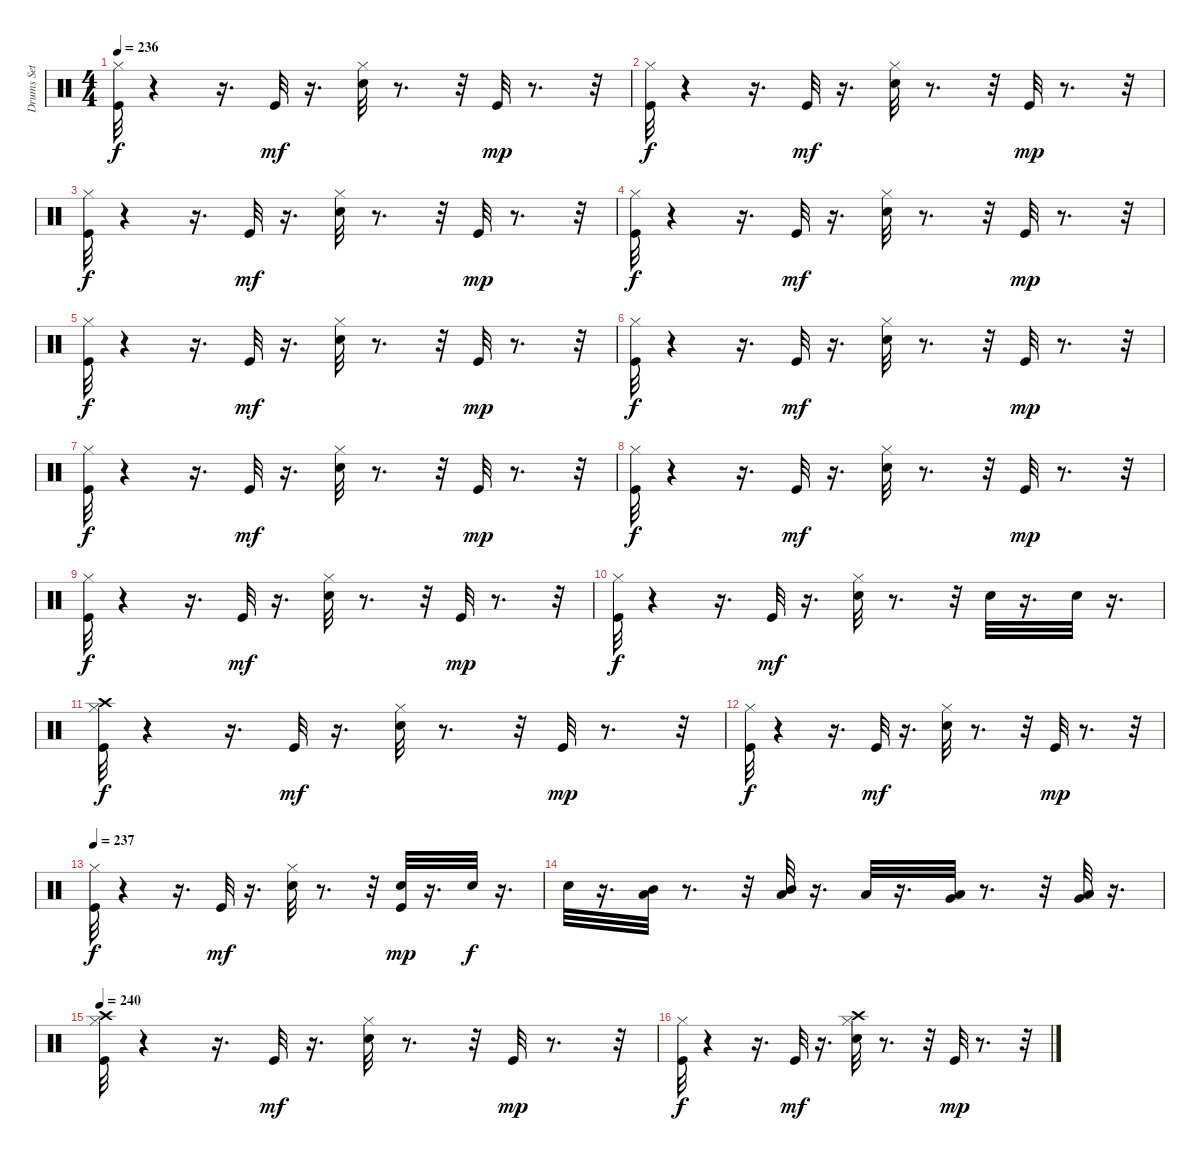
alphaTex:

\track ("Drums Set" "Drums Set") {instrument percussion}
\staff {score}
\articulation defaults
\ts (4 4)
\tempo 236
\clef neutral
\ks c
("Kick (hit)" "Hi-Hat (closed)").32{dy f} r.4 r.16{d} "Kick (hit)".32{dy mf} r.16{d} ("Hi-Hat (closed)" "Snare (hit) 2").32 r.8{d} r.32 "Kick (hit)".32{dy mp} r.8{d} r.32 |
("Kick (hit)" "Hi-Hat (closed)").32{dy f} r.4 r.16{d} "Kick (hit)".32{dy mf} r.16{d} ("Hi-Hat (closed)" "Snare (hit) 2").32 r.8{d} r.32 "Kick (hit)".32{dy mp} r.8{d} r.32 |
("Kick (hit)" "Hi-Hat (closed)").32{dy f} r.4 r.16{d} "Kick (hit)".32{dy mf} r.16{d} ("Hi-Hat (closed)" "Snare (hit) 2").32 r.8{d} r.32 "Kick (hit)".32{dy mp} r.8{d} r.32 |
("Kick (hit)" "Hi-Hat (closed)").32{dy f} r.4 r.16{d} "Kick (hit)".32{dy mf} r.16{d} ("Hi-Hat (closed)" "Snare (hit) 2").32 r.8{d} r.32 "Kick (hit)".32{dy mp} r.8{d} r.32 |
("Kick (hit)" "Hi-Hat (closed)").32{dy f} r.4 r.16{d} "Kick (hit)".32{dy mf} r.16{d} ("Hi-Hat (closed)" "Snare (hit) 2").32 r.8{d} r.32 "Kick (hit)".32{dy mp} r.8{d} r.32 |
("Kick (hit)" "Hi-Hat (closed)").32{dy f} r.4 r.16{d} "Kick (hit)".32{dy mf} r.16{d} ("Hi-Hat (closed)" "Snare (hit) 2").32 r.8{d} r.32 "Kick (hit)".32{dy mp} r.8{d} r.32 |
("Kick (hit)" "Hi-Hat (closed)").32{dy f} r.4 r.16{d} "Kick (hit)".32{dy mf} r.16{d} ("Hi-Hat (closed)" "Snare (hit) 2").32 r.8{d} r.32 "Kick (hit)".32{dy mp} r.8{d} r.32 |
("Kick (hit)" "Hi-Hat (closed)").32{dy f} r.4 r.16{d} "Kick (hit)".32{dy mf} r.16{d} ("Hi-Hat (closed)" "Snare (hit) 2").32 r.8{d} r.32 "Kick (hit)".32{dy mp} r.8{d} r.32 |
("Kick (hit)" "Hi-Hat (closed)").32{dy f} r.4 r.16{d} "Kick (hit)".32{dy mf} r.16{d} ("Hi-Hat (closed)" "Snare (hit) 2").32 r.8{d} r.32 "Kick (hit)".32{dy mp} r.8{d} r.32 |
("Kick (hit)" "Hi-Hat (closed)").32{dy f} r.4 r.16{d} "Kick (hit)".32{dy mf} r.16{d} ("Hi-Hat (closed)" "Snare (hit) 2").32 r.8{d} r.32 "Snare (hit) 2".32 r.16{d} "Snare (hit) 2".32 r.16{d} |
("Crash high (hit)" "Kick (hit)" "Hi-Hat (closed)").32{dy f} r.4 r.16{d} "Kick (hit)".32{dy mf} r.16{d} ("Hi-Hat (closed)" "Snare (hit) 2").32 r.8{d} r.32 "Kick (hit)".32{dy mp} r.8{d} r.32 |
("Kick (hit)" "Hi-Hat (closed)").32{dy f} r.4 r.16{d} "Kick (hit)".32{dy mf} r.16{d} ("Hi-Hat (closed)" "Snare (hit) 2").32 r.8{d} r.32 "Kick (hit)".32{dy mp} r.8{d} r.32 |
\tempo 237
("Kick (hit)" "Hi-Hat (closed)").32{dy f} r.4 r.16{d} "Kick (hit)".32{dy mf} r.16{d} ("Hi-Hat (closed)" "Snare (hit) 2").32 r.8{d} r.32 ("Kick (hit)" "Snare (hit) 2").32{dy mp} r.16{d} "Snare (hit) 2".32{dy f} r.16{d} |
"Snare (hit) 2".32 r.16{d} ("Low Tom (hit)" "Mid Tom (hit)").32 r.8{d} r.32 ("Mid Tom (hit)" "Low Tom (hit)").32 r.16{d} "Low Tom (hit)".32 r.16{d} ("Low Floor Tom (hit)" "Very Low Tom (hit)").32 r.8{d} r.32 ("Low Floor Tom (hit)" "Very Low Tom (hit)").32 r.16{d} |
\tempo 240
("Crash high (hit)" "Kick (hit)" "Hi-Hat (closed)").32 r.4 r.16{d} "Kick (hit)".32{dy mf} r.16{d} ("Hi-Hat (closed)" "Snare (hit) 2").32 r.8{d} r.32 "Kick (hit)".32{dy mp} r.8{d} r.32 |
("Kick (hit)" "Hi-Hat (closed)").32{dy f} r.4 r.16{d} "Kick (hit)".32{dy mf} r.16{d} ("Crash high (hit)" "Hi-Hat (closed)" "Snare (hit) 2").32 r.8{d} r.32 "Kick (hit)".32{dy mp} r.8{d} r.32
